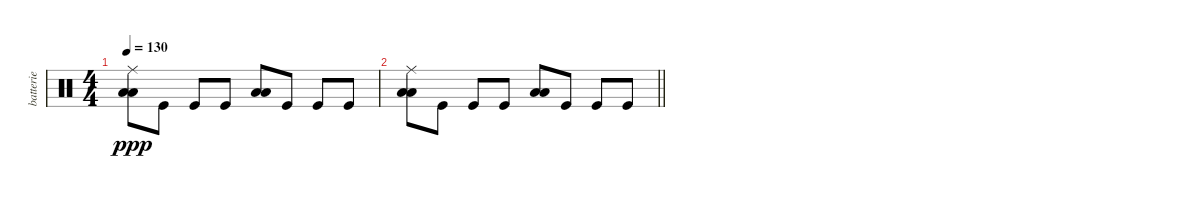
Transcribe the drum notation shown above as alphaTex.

\track ("batterie" "batterie") {instrument percussion}
\staff {score}
\articulation defaults
\ts (4 4)
\tempo 130
\clef neutral
\ks c
("Ride (middle)" "Low Floor Tom (hit)" "Low Floor Tom (hit)").8{bd 240 dy ppp} "Kick (hit)".8 "Kick (hit)".8 "Kick (hit)".8 ("Low Floor Tom (hit)" "Low Floor Tom (hit)").8 "Kick (hit)".8 "Kick (hit)".8 "Kick (hit)".8 |
\barLineRight lightlight
("Ride (middle)" "Low Floor Tom (hit)" "Low Floor Tom (hit)").8{bd 240} "Kick (hit)".8 "Kick (hit)".8 "Kick (hit)".8 ("Low Floor Tom (hit)" "Low Floor Tom (hit)").8 "Kick (hit)".8 "Kick (hit)".8 "Kick (hit)".8
